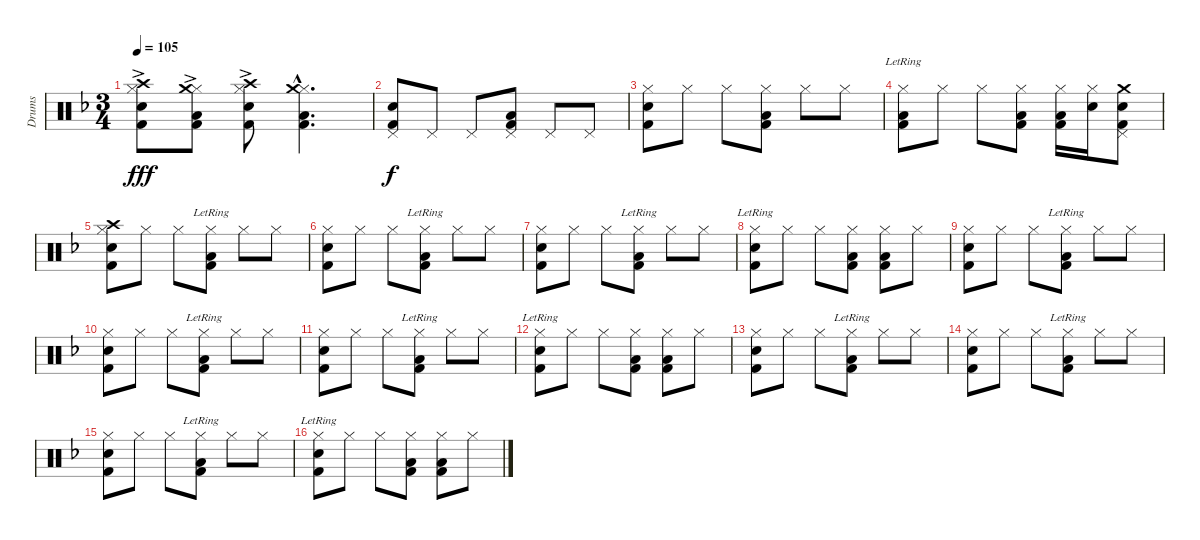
\track ("Drums" "Drums") {instrument percussion}
\staff {score}
\articulation defaults
\ts (3 4)
\tempo 105
\clef neutral
\ks f
("Hi-Hat (closed)" "Crash high (hit)" "Snare (hit) 2" "Kick (hit) 2"{ac}).8{dy fff} ("Hi-Hat (closed)" "Crash medium (hit)" "Low Floor Tom (hit)" "Kick (hit) 2"{ac}).8 ("Hi-Hat (closed)" "Crash high (hit)" "Snare (hit) 2" "Kick (hit) 2"{ac}).8 ("Hi-Hat (closed)"{hac} "Crash medium (hit)"{hac} "Low Floor Tom (hit)"{hac} "Kick (hit) 2"{hac}).4{d} |
("Pedal Hi-Hat (hit)" "Snare (hit) 2" "Kick (hit) 2").8{dy f} "Pedal Hi-Hat (hit)".8 "Pedal Hi-Hat (hit)".8 ("Pedal Hi-Hat (hit)" "Low Floor Tom (hit)" "Kick (hit) 2").8 "Pedal Hi-Hat (hit)".8 "Pedal Hi-Hat (hit)".8 |
("Hi-Hat (closed)" "Snare (hit) 2" "Kick (hit) 2").8 "Hi-Hat (closed)".8 "Hi-Hat (closed)".8 ("Hi-Hat (closed)" "Low Floor Tom (hit)" "Kick (hit) 2").8 "Hi-Hat (closed)".8 "Hi-Hat (closed)".8 |
("Hi-Hat (closed)" "Low Floor Tom (hit)"{lr} "Kick (hit) 2"{lr}).8 "Hi-Hat (closed)".8 "Hi-Hat (closed)".8 ("Hi-Hat (closed)" "Low Floor Tom (hit)" "Kick (hit) 2").8 ("Hi-Hat (closed)" "Low Floor Tom (hit)" "Kick (hit) 2").16 ("Hi-Hat (closed)" "Electric Snare (hit)").16 ("Pedal Hi-Hat (hit)" "Crash medium (hit)" "Electric Snare (hit)" "Kick (hit) 2").8 |
("Hi-Hat (closed)" "Crash high (hit)" "Snare (hit) 2" "Kick (hit) 2").8 "Hi-Hat (closed)".8 "Hi-Hat (closed)".8 ("Hi-Hat (closed)" "Low Floor Tom (hit)"{lr} "Kick (hit) 2"{lr}).8 "Hi-Hat (closed)".8 "Hi-Hat (closed)".8 |
("Hi-Hat (closed)" "Snare (hit) 2" "Kick (hit) 2").8 "Hi-Hat (closed)".8 "Hi-Hat (closed)".8 ("Hi-Hat (closed)" "Low Floor Tom (hit)"{lr} "Kick (hit) 2"{lr}).8 "Hi-Hat (closed)".8 "Hi-Hat (closed)".8 |
("Hi-Hat (closed)" "Snare (hit) 2" "Kick (hit) 2").8 "Hi-Hat (closed)".8 "Hi-Hat (closed)".8 ("Hi-Hat (closed)" "Low Floor Tom (hit)"{lr} "Kick (hit) 2"{lr}).8 "Hi-Hat (closed)".8 "Hi-Hat (closed)".8 |
("Hi-Hat (closed)" "Snare (hit) 2"{lr} "Kick (hit) 2"{lr}).8 "Hi-Hat (closed)".8 "Hi-Hat (closed)".8 ("Hi-Hat (closed)" "Low Floor Tom (hit)" "Kick (hit) 2").8 ("Hi-Hat (closed)" "Low Floor Tom (hit)" "Kick (hit) 2").8 "Hi-Hat (closed)".8 |
("Hi-Hat (closed)" "Snare (hit) 2" "Kick (hit) 2").8 "Hi-Hat (closed)".8 "Hi-Hat (closed)".8 ("Hi-Hat (closed)" "Low Floor Tom (hit)"{lr} "Kick (hit) 2"{lr}).8 "Hi-Hat (closed)".8 "Hi-Hat (closed)".8 |
("Hi-Hat (closed)" "Snare (hit) 2" "Kick (hit) 2").8 "Hi-Hat (closed)".8 "Hi-Hat (closed)".8 ("Hi-Hat (closed)" "Low Floor Tom (hit)"{lr} "Kick (hit) 2"{lr}).8 "Hi-Hat (closed)".8 "Hi-Hat (closed)".8 |
("Hi-Hat (closed)" "Snare (hit) 2" "Kick (hit) 2").8 "Hi-Hat (closed)".8 "Hi-Hat (closed)".8 ("Hi-Hat (closed)" "Low Floor Tom (hit)"{lr} "Kick (hit) 2"{lr}).8 "Hi-Hat (closed)".8 "Hi-Hat (closed)".8 |
("Hi-Hat (closed)" "Snare (hit) 2"{lr} "Kick (hit) 2"{lr}).8 "Hi-Hat (closed)".8 "Hi-Hat (closed)".8 ("Hi-Hat (closed)" "Low Floor Tom (hit)" "Kick (hit) 2").8 ("Hi-Hat (closed)" "Low Floor Tom (hit)" "Kick (hit) 2").8 "Hi-Hat (closed)".8 |
("Hi-Hat (closed)" "Snare (hit) 2" "Kick (hit) 2").8 "Hi-Hat (closed)".8 "Hi-Hat (closed)".8 ("Hi-Hat (closed)" "Low Floor Tom (hit)"{lr} "Kick (hit) 2"{lr}).8 "Hi-Hat (closed)".8 "Hi-Hat (closed)".8 |
("Hi-Hat (closed)" "Snare (hit) 2" "Kick (hit) 2").8 "Hi-Hat (closed)".8 "Hi-Hat (closed)".8 ("Hi-Hat (closed)" "Low Floor Tom (hit)"{lr} "Kick (hit) 2"{lr}).8 "Hi-Hat (closed)".8 "Hi-Hat (closed)".8 |
("Hi-Hat (closed)" "Snare (hit) 2" "Kick (hit) 2").8 "Hi-Hat (closed)".8 "Hi-Hat (closed)".8 ("Hi-Hat (closed)" "Low Floor Tom (hit)"{lr} "Kick (hit) 2"{lr}).8 "Hi-Hat (closed)".8 "Hi-Hat (closed)".8 |
("Hi-Hat (closed)" "Snare (hit) 2"{lr} "Kick (hit) 2"{lr}).8 "Hi-Hat (closed)".8 "Hi-Hat (closed)".8 ("Hi-Hat (closed)" "Low Floor Tom (hit)" "Kick (hit) 2").8 ("Hi-Hat (closed)" "Low Floor Tom (hit)" "Kick (hit) 2").8 "Hi-Hat (closed)".8
